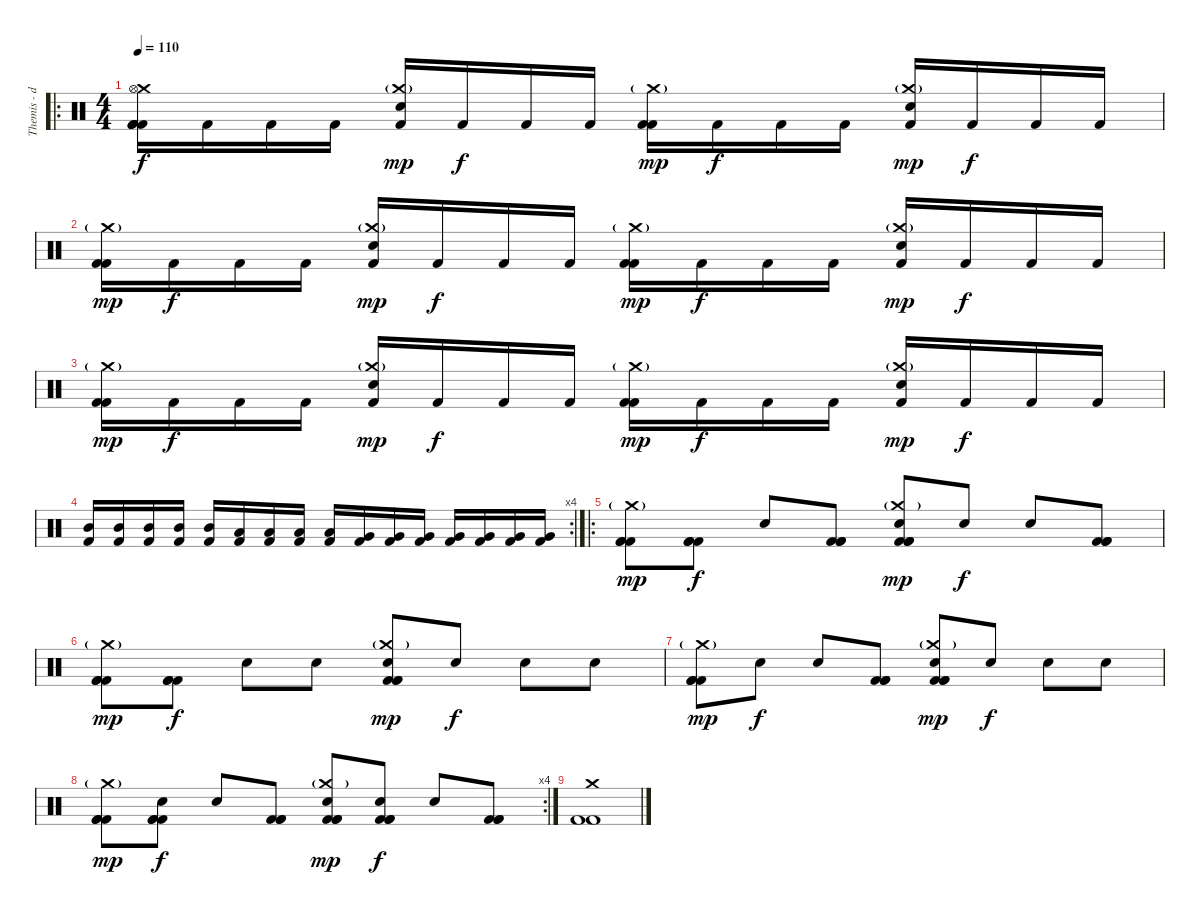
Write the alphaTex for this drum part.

\track ("Themis - drms" "Themis - d") {instrument percussion}
\staff {score}
\articulation defaults
\ro
\ts (4 4)
\tempo 110
\clef neutral
\ks c
("Kick (hit) 2" "Crash medium (hit)" "Hi-Hat (open)" "Kick (hit) 2" "Kick (hit) 2" "Kick (hit) 2").16{dy f} "Kick (hit) 2".16 "Kick (hit) 2".16 "Kick (hit) 2".16 ("Crash medium (hit)"{g} "Snare (hit) 2" "Kick (hit) 2").16{dy mp} "Kick (hit) 2".16{dy f} "Kick (hit) 2".16 "Kick (hit) 2".16 ("Crash medium (hit)"{g} "Kick (hit) 2" "Kick (hit) 2").16{dy mp} "Kick (hit) 2".16{dy f} "Kick (hit) 2".16 "Kick (hit) 2".16 ("Crash medium (hit)"{g} "Snare (hit) 2" "Kick (hit) 2").16{dy mp} "Kick (hit) 2".16{dy f} "Kick (hit) 2".16 "Kick (hit) 2".16 |
("Crash medium (hit)"{g} "Kick (hit) 2" "Kick (hit) 2").16{dy mp} "Kick (hit) 2".16{dy f} "Kick (hit) 2".16 "Kick (hit) 2".16 ("Crash medium (hit)"{g} "Snare (hit) 2" "Kick (hit) 2").16{dy mp} "Kick (hit) 2".16{dy f} "Kick (hit) 2".16 "Kick (hit) 2".16 ("Crash medium (hit)"{g} "Kick (hit) 2" "Kick (hit) 2").16{dy mp} "Kick (hit) 2".16{dy f} "Kick (hit) 2".16 "Kick (hit) 2".16 ("Crash medium (hit)"{g} "Snare (hit) 2" "Kick (hit) 2").16{dy mp} "Kick (hit) 2".16{dy f} "Kick (hit) 2".16 "Kick (hit) 2".16 |
("Crash medium (hit)"{g} "Kick (hit) 2" "Kick (hit) 2").16{dy mp} "Kick (hit) 2".16{dy f} "Kick (hit) 2".16 "Kick (hit) 2".16 ("Crash medium (hit)"{g} "Snare (hit) 2" "Kick (hit) 2").16{dy mp} "Kick (hit) 2".16{dy f} "Kick (hit) 2".16 "Kick (hit) 2".16 ("Crash medium (hit)"{g} "Kick (hit) 2" "Kick (hit) 2").16{dy mp} "Kick (hit) 2".16{dy f} "Kick (hit) 2".16 "Kick (hit) 2".16 ("Crash medium (hit)"{g} "Snare (hit) 2" "Kick (hit) 2").16{dy mp} "Kick (hit) 2".16{dy f} "Kick (hit) 2".16 "Kick (hit) 2".16 |
\rc 4
("Mid Tom (hit)" "Kick (hit) 2").16 ("Mid Tom (hit)" "Kick (hit) 2").16 ("Mid Tom (hit)" "Kick (hit) 2").16 ("Mid Tom (hit)" "Kick (hit) 2").16 ("Mid Tom (hit)" "Kick (hit) 2").16 ("Low Tom (hit)" "Kick (hit) 2").16 ("Low Tom (hit)" "Kick (hit) 2").16 ("Low Tom (hit)" "Kick (hit) 2").16 ("Low Tom (hit)" "Kick (hit) 2").16 ("Very Low Tom (hit)" "Kick (hit) 2").16 ("Very Low Tom (hit)" "Kick (hit) 2").16 ("Very Low Tom (hit)" "Kick (hit) 2").16 ("Very Low Tom (hit)" "Kick (hit) 2").16 ("Very Low Tom (hit)" "Kick (hit) 2").16 ("Very Low Tom (hit)" "Kick (hit) 2").16 ("Very Low Tom (hit)" "Kick (hit) 2").16 |
\ro
("Kick (hit) 2" "Kick (hit) 2" "Crash medium (hit)"{g} "Kick (hit) 2").8{dy mp} ("Kick (hit) 2" "Kick (hit) 2" "Kick (hit) 2").8{dy f} "Snare (hit)"{x}.8 ("Kick (hit) 2" "Kick (hit) 2" "Kick (hit) 2").8 ("Kick (hit) 2" "Kick (hit) 2" "Crash medium (hit)"{g} "Electric Snare (hit)" "Kick (hit) 2").8{dy mp} "Snare (hit)"{x}.8{dy f} "Snare (hit)"{x}.8 ("Kick (hit) 2" "Kick (hit) 2" "Kick (hit) 2").8 |
("Kick (hit) 2" "Kick (hit) 2" "Crash medium (hit)"{g} "Kick (hit) 2").8{dy mp} ("Kick (hit) 2" "Kick (hit) 2" "Kick (hit) 2").8{dy f} "Snare (hit)"{x}.8 "Snare (hit)"{x}.8 ("Kick (hit) 2" "Kick (hit) 2" "Crash medium (hit)"{g} "Electric Snare (hit)" "Kick (hit) 2").8{dy mp} "Snare (hit)"{x}.8{dy f} "Snare (hit)"{x}.8 "Snare (hit)"{x}.8 |
("Kick (hit) 2" "Kick (hit) 2" "Crash medium (hit)"{g} "Kick (hit) 2").8{dy mp} "Snare (hit)"{x}.8{dy f} "Snare (hit)"{x}.8 ("Kick (hit) 2" "Kick (hit) 2" "Kick (hit) 2").8 ("Kick (hit) 2" "Kick (hit) 2" "Crash medium (hit)"{g} "Electric Snare (hit)" "Kick (hit) 2").8{dy mp} "Snare (hit)"{x}.8{dy f} "Snare (hit)"{x}.8 "Snare (hit)"{x}.8 |
\rc 4
("Kick (hit) 2" "Kick (hit) 2" "Crash medium (hit)"{g} "Kick (hit) 2").8{dy mp} ("Kick (hit) 2" "Kick (hit) 2" "Electric Snare (hit)" "Kick (hit) 2").8{dy f} "Snare (hit)"{x}.8 ("Kick (hit) 2" "Kick (hit) 2" "Kick (hit) 2").8 ("Kick (hit) 2" "Kick (hit) 2" "Crash medium (hit)"{g} "Electric Snare (hit)" "Kick (hit) 2").8{dy mp} ("Kick (hit) 2" "Kick (hit) 2" "Electric Snare (hit)" "Kick (hit) 2").8{dy f} "Snare (hit)"{x}.8 ("Kick (hit) 2" "Kick (hit) 2" "Kick (hit) 2").8 |
("Crash medium (hit)" "Kick (hit) 2" "Kick (hit) 2").1
